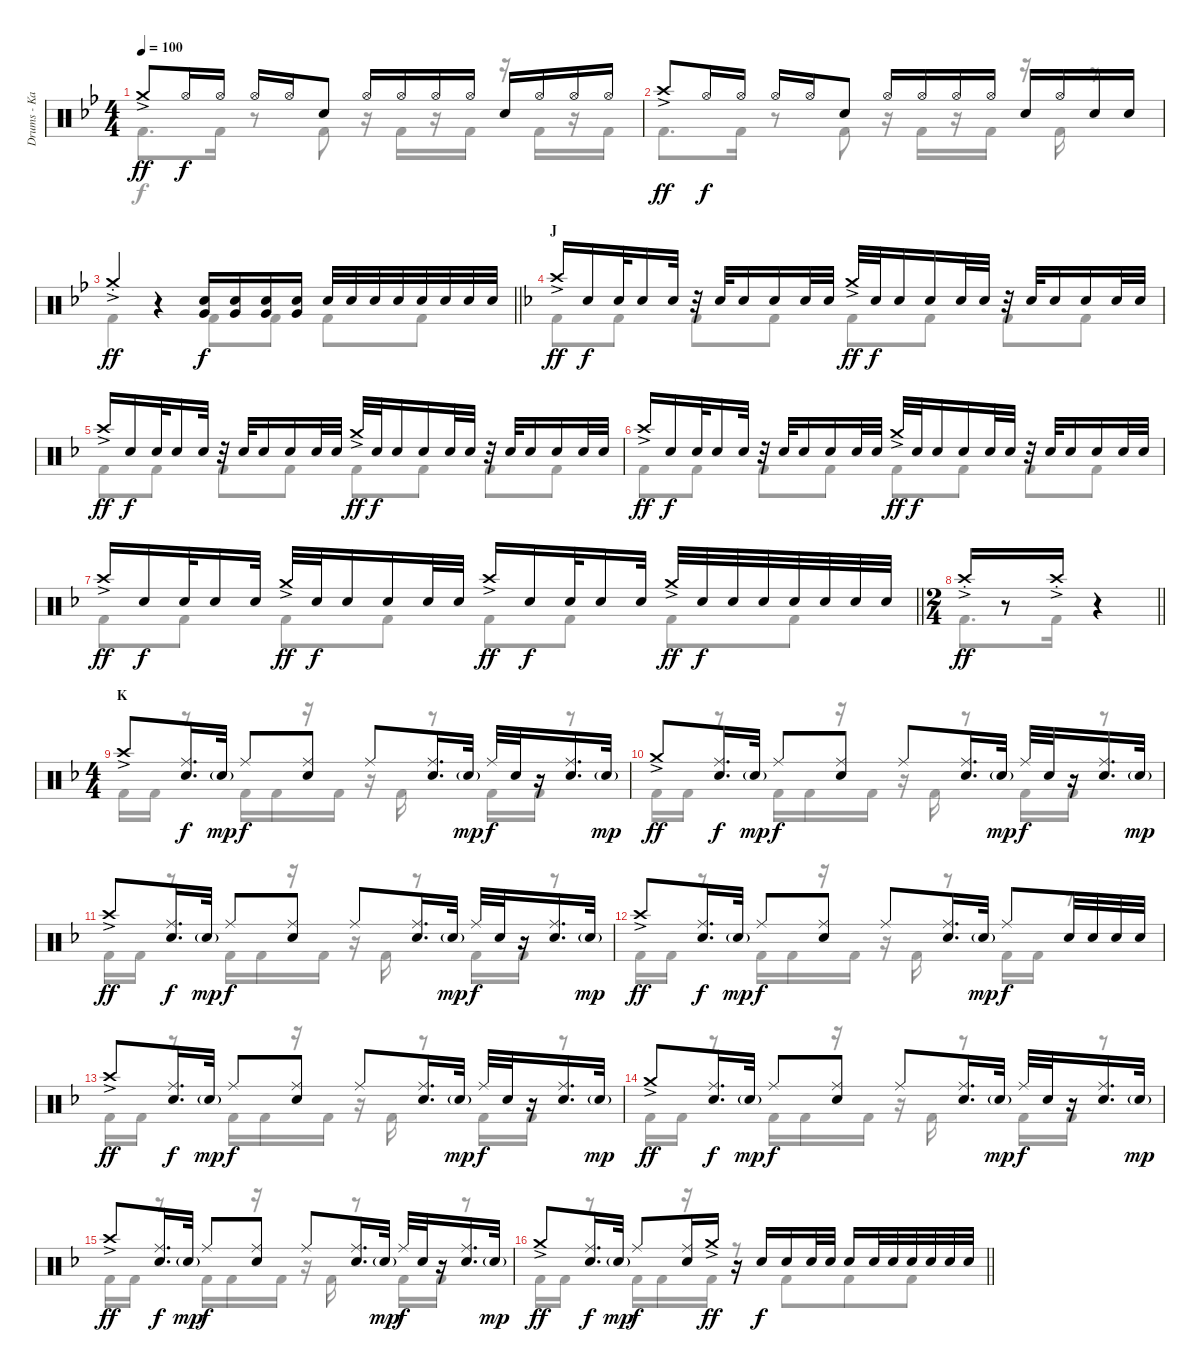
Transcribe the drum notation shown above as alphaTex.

\track ("Drums - Kai" "Drums - Ka") {instrument percussion}
\staff {score}
\articulation defaults
\voice
\ts (4 4)
\tempo 100
\clef neutral
\ks bb "Crash medium (hit)"{ac}.8{dy ff} "Hi-Hat (open)".16{dy f} "Hi-Hat (open)".16 "Hi-Hat (open)".16 "Hi-Hat (open)".16 "Electric Snare (hit)".8 "Hi-Hat (open)".16 "Hi-Hat (open)".16 "Hi-Hat (open)".16 "Hi-Hat (open)".16 "Electric Snare (hit)".16 "Hi-Hat (open)".16 "Hi-Hat (open)".16 "Hi-Hat (open)".16
|
"Crash high (hit)"{ac}.8{dy ff} "Hi-Hat (open)".16{dy f} "Hi-Hat (open)".16 "Hi-Hat (open)".16 "Hi-Hat (open)".16 "Electric Snare (hit)".8 "Hi-Hat (open)".16 "Hi-Hat (open)".16 "Hi-Hat (open)".16 "Hi-Hat (open)".16 "Electric Snare (hit)".16 "Hi-Hat (open)".16 "Electric Snare (hit)".16 "Electric Snare (hit)".16 |
\barLineRight lightlight "Crash medium (hit)"{ac st}.4{dy ff}
r.4 ("Very Low Tom (hit)" "Electric Snare (hit)").16{dy f} ("Very Low Tom (hit)" "Electric Snare (hit)").16 ("Very Low Tom (hit)" "Electric Snare (hit)").16 ("Very Low Tom (hit)" "Electric Snare (hit)").16 "Electric Snare (hit)".32 "Electric Snare (hit)".32 "Electric Snare (hit)".32 "Electric Snare (hit)".32 "Electric Snare (hit)".32 "Electric Snare (hit)".32 "Electric Snare (hit)".32 "Electric Snare (hit)".32 |
\section ("" "J")
\ks f "Crash high (hit)"{ac}.16{dy ff} "Electric Snare (hit)".16{dy f} "Electric Snare (hit)".32 "Electric Snare (hit)".16 "Electric Snare (hit)".32
r.32 "Electric Snare (hit)".32 "Electric Snare (hit)".16 "Electric Snare (hit)".16 "Electric Snare (hit)".32 "Electric Snare (hit)".32 "Crash medium (hit)"{ac}.32{dy ff} "Electric Snare (hit)".32{dy f} "Electric Snare (hit)".16 "Electric Snare (hit)".16 "Electric Snare (hit)".32 "Electric Snare (hit)".32 r.32 "Electric Snare (hit)".32 "Electric Snare (hit)".16 "Electric Snare (hit)".16 "Electric Snare (hit)".32 "Electric Snare (hit)".32 |
"Crash high (hit)"{ac}.16{dy ff} "Electric Snare (hit)".16{dy f} "Electric Snare (hit)".32 "Electric Snare (hit)".16 "Electric Snare (hit)".32 r.32 "Electric Snare (hit)".32 "Electric Snare (hit)".16 "Electric Snare (hit)".16 "Electric Snare (hit)".32 "Electric Snare (hit)".32 "Crash medium (hit)"{ac}.32{dy ff} "Electric Snare (hit)".32{dy f} "Electric Snare (hit)".16 "Electric Snare (hit)".16 "Electric Snare (hit)".32 "Electric Snare (hit)".32 r.32 "Electric Snare (hit)".32 "Electric Snare (hit)".16 "Electric Snare (hit)".16 "Electric Snare (hit)".32 "Electric Snare (hit)".32 |
"Crash high (hit)"{ac}.16{dy ff} "Electric Snare (hit)".16{dy f} "Electric Snare (hit)".32 "Electric Snare (hit)".16 "Electric Snare (hit)".32 r.32 "Electric Snare (hit)".32 "Electric Snare (hit)".16 "Electric Snare (hit)".16 "Electric Snare (hit)".32 "Electric Snare (hit)".32 "Crash medium (hit)"{ac}.32{dy ff} "Electric Snare (hit)".32{dy f} "Electric Snare (hit)".16 "Electric Snare (hit)".16 "Electric Snare (hit)".32 "Electric Snare (hit)".32 r.32 "Electric Snare (hit)".32 "Electric Snare (hit)".16 "Electric Snare (hit)".16 "Electric Snare (hit)".32 "Electric Snare (hit)".32 |
\barLineRight lightlight "Crash high (hit)"{ac}.16{dy ff} "Electric Snare (hit)".16{dy f} "Electric Snare (hit)".32 "Electric Snare (hit)".16 "Electric Snare (hit)".32 "Crash medium (hit)"{ac}.32{dy ff} "Electric Snare (hit)".32{dy f} "Electric Snare (hit)".16 "Electric Snare (hit)".16 "Electric Snare (hit)".32 "Electric Snare (hit)".32 "Crash high (hit)"{ac}.16{dy ff} "Electric Snare (hit)".16{dy f} "Electric Snare (hit)".32 "Electric Snare (hit)".16 "Electric Snare (hit)".32 "Crash medium (hit)"{ac}.32{dy ff} "Electric Snare (hit)".32{dy f} "Electric Snare (hit)".32 "Electric Snare (hit)".32 "Electric Snare (hit)".32 "Electric Snare (hit)".32 "Electric Snare (hit)".32 "Electric Snare (hit)".32
|
\ts (2 4)
\barLineRight lightlight "Crash high (hit)"{ac st}.16{dy ff}
r.8 "Crash high (hit)"{ac st}.16 r.4 |
\ts (4 4)
\section ("" "K")
"Crash high (hit)"{ac}.8 ("Ride (middle)" "Electric Snare (hit)").16{d dy f} "Electric Snare (hit)"{g}.32{dy mp} "Ride (middle)".8{dy f} ("Ride (middle)" "Electric Snare (hit)").8 "Ride (middle)".8 ("Ride (middle)" "Electric Snare (hit)").16{d} "Electric Snare (hit)"{g}.32{dy mp} "Ride (middle)".32{dy f} "Electric Snare (hit)".32 r.16 ("Ride (middle)" "Electric Snare (hit)").16{d} "Electric Snare (hit)"{g}.32{dy mp} |
"Crash medium (hit)"{ac}.8{dy ff} ("Ride (middle)" "Electric Snare (hit)").16{d dy f} "Electric Snare (hit)"{g}.32{dy mp} "Ride (middle)".8{dy f} ("Ride (middle)" "Electric Snare (hit)").8 "Ride (middle)".8 ("Ride (middle)" "Electric Snare (hit)").16{d} "Electric Snare (hit)"{g}.32{dy mp} "Ride (middle)".32{dy f} "Electric Snare (hit)".32 r.16 ("Ride (middle)" "Electric Snare (hit)").16{d} "Electric Snare (hit)"{g}.32{dy mp} |
"Crash high (hit)"{ac}.8{dy ff} ("Ride (middle)" "Electric Snare (hit)").16{d dy f} "Electric Snare (hit)"{g}.32{dy mp} "Ride (middle)".8{dy f} ("Ride (middle)" "Electric Snare (hit)").8 "Ride (middle)".8 ("Ride (middle)" "Electric Snare (hit)").16{d} "Electric Snare (hit)"{g}.32{dy mp} "Ride (middle)".32{dy f} "Electric Snare (hit)".32 r.16 ("Ride (middle)" "Electric Snare (hit)").16{d} "Electric Snare (hit)"{g}.32{dy mp} |
"Crash high (hit)"{ac}.8{dy ff} ("Ride (middle)" "Electric Snare (hit)").16{d dy f} "Electric Snare (hit)"{g}.32{dy mp} "Ride (middle)".8{dy f} ("Ride (middle)" "Electric Snare (hit)").8 "Ride (middle)".8 ("Ride (middle)" "Electric Snare (hit)").16{d} "Electric Snare (hit)"{g}.32{dy mp} "Ride (middle)".8{dy f} "Electric Snare (hit)".32 "Electric Snare (hit)".32 "Electric Snare (hit)".32 "Electric Snare (hit)".32 |
"Crash high (hit)"{ac}.8{dy ff} ("Ride (middle)" "Electric Snare (hit)").16{d dy f} "Electric Snare (hit)"{g}.32{dy mp} "Ride (middle)".8{dy f} ("Ride (middle)" "Electric Snare (hit)").8 "Ride (middle)".8 ("Ride (middle)" "Electric Snare (hit)").16{d} "Electric Snare (hit)"{g}.32{dy mp} "Ride (middle)".32{dy f} "Electric Snare (hit)".32 r.16 ("Ride (middle)" "Electric Snare (hit)").16{d} "Electric Snare (hit)"{g}.32{dy mp} |
"Crash medium (hit)"{ac}.8{dy ff} ("Ride (middle)" "Electric Snare (hit)").16{d dy f} "Electric Snare (hit)"{g}.32{dy mp} "Ride (middle)".8{dy f} ("Ride (middle)" "Electric Snare (hit)").8 "Ride (middle)".8 ("Ride (middle)" "Electric Snare (hit)").16{d} "Electric Snare (hit)"{g}.32{dy mp} "Ride (middle)".32{dy f} "Electric Snare (hit)".32 r.16 ("Ride (middle)" "Electric Snare (hit)").16{d} "Electric Snare (hit)"{g}.32{dy mp} |
"Crash high (hit)"{ac}.8{dy ff} ("Ride (middle)" "Electric Snare (hit)").16{d dy f} "Electric Snare (hit)"{g}.32{dy mp} "Ride (middle)".8{dy f} ("Ride (middle)" "Electric Snare (hit)").8 "Ride (middle)".8 ("Ride (middle)" "Electric Snare (hit)").16{d} "Electric Snare (hit)"{g}.32{dy mp} "Ride (middle)".32{dy f} "Electric Snare (hit)".32 r.16 ("Ride (middle)" "Electric Snare (hit)").16{d} "Electric Snare (hit)"{g}.32{dy mp} |
\barLineRight lightlight "Crash medium (hit)"{ac}.8{dy ff}
("Ride (middle)" "Electric Snare (hit)").16{d dy f} "Electric Snare (hit)"{g}.32{dy mp} "Ride (middle)".8{dy f} ("Ride (middle)" "Electric Snare (hit)").16 "Crash medium (hit)"{ac}.16{dy ff} r.16 "Electric Snare (hit)".16{dy f} "Electric Snare (hit)".16 "Electric Snare (hit)".32 "Electric Snare (hit)".32 "Electric Snare (hit)".16 "Electric Snare (hit)".32 "Electric Snare (hit)".32 "Electric Snare (hit)".32 "Electric Snare (hit)".32 "Electric Snare (hit)".32 "Electric Snare (hit)".32
\voice
\clef neutral
\ottava regular
\simile none
\ks bb "Kick (hit) 2".8{d dy f} "Kick (hit) 2".16
r.8 "Kick (hit) 2".8 r.16 "Kick (hit) 2".16 r.16 "Kick (hit) 2".16 r.16 "Kick (hit) 2".16 r.16 "Kick (hit) 2".16 |
"Kick (hit) 2".8{d} "Kick (hit) 2".16 r.8 "Kick (hit) 2".8 r.16 "Kick (hit) 2".16 r.16 "Kick (hit) 2".16 r.16 "Kick (hit) 2".16 r.8 |
\barLineRight lightlight "Kick (hit) 2".4
r.4 "Kick (hit) 2".8 "Kick (hit) 2".8 "Kick (hit) 2".8 "Kick (hit) 2".8 |
\ks f "Kick (hit) 2".8 "Kick (hit) 2".8 "Kick (hit) 2".8 "Kick (hit) 2".8 "Kick (hit) 2".8 "Kick (hit) 2".8 "Kick (hit) 2".8 "Kick (hit) 2".8
|
"Kick (hit) 2".8 "Kick (hit) 2".8 "Kick (hit) 2".8 "Kick (hit) 2".8 "Kick (hit) 2".8 "Kick (hit) 2".8 "Kick (hit) 2".8 "Kick (hit) 2".8 |
"Kick (hit) 2".8 "Kick (hit) 2".8 "Kick (hit) 2".8 "Kick (hit) 2".8 "Kick (hit) 2".8 "Kick (hit) 2".8 "Kick (hit) 2".8 "Kick (hit) 2".8 |
\barLineRight lightlight "Kick (hit) 2".8 "Kick (hit) 2".8 "Kick (hit) 2".8 "Kick (hit) 2".8 "Kick (hit) 2".8 "Kick (hit) 2".8 "Kick (hit) 2".8 "Kick (hit) 2".8
|
\barLineRight lightlight "Kick (hit) 2".8{d} "Kick (hit) 2".16
r.4 |
"Kick (hit) 2".16 "Kick (hit) 2".16 r.8 "Kick (hit) 2".16 "Kick (hit) 2".16 r.16 "Kick (hit) 2".16 r.16 "Kick (hit) 2".16 r.8 "Kick (hit) 2".16 "Kick (hit) 2".16 r.8 |
"Kick (hit) 2".16 "Kick (hit) 2".16 r.8 "Kick (hit) 2".16 "Kick (hit) 2".16 r.16 "Kick (hit) 2".16 r.16 "Kick (hit) 2".16 r.8 "Kick (hit) 2".16 "Kick (hit) 2".16 r.8 |
"Kick (hit) 2".16 "Kick (hit) 2".16 r.8 "Kick (hit) 2".16 "Kick (hit) 2".16 r.16 "Kick (hit) 2".16 r.16 "Kick (hit) 2".16 r.8 "Kick (hit) 2".16 "Kick (hit) 2".16 r.8 |
"Kick (hit) 2".16 "Kick (hit) 2".16 r.8 "Kick (hit) 2".16 "Kick (hit) 2".16 r.16 "Kick (hit) 2".16 r.16 "Kick (hit) 2".16 r.8 "Kick (hit) 2".16 "Kick (hit) 2".16 r.8 |
"Kick (hit) 2".16 "Kick (hit) 2".16 r.8 "Kick (hit) 2".16 "Kick (hit) 2".16 r.16 "Kick (hit) 2".16 r.16 "Kick (hit) 2".16 r.8 "Kick (hit) 2".16 "Kick (hit) 2".16 r.8 |
"Kick (hit) 2".16 "Kick (hit) 2".16 r.8 "Kick (hit) 2".16 "Kick (hit) 2".16 r.16 "Kick (hit) 2".16 r.16 "Kick (hit) 2".16 r.8 "Kick (hit) 2".16 "Kick (hit) 2".16 r.8 |
"Kick (hit) 2".16 "Kick (hit) 2".16 r.8 "Kick (hit) 2".16 "Kick (hit) 2".16 r.16 "Kick (hit) 2".16 r.16 "Kick (hit) 2".16 r.8 "Kick (hit) 2".16 "Kick (hit) 2".16 r.8 |
\barLineRight lightlight "Kick (hit) 2".16 "Kick (hit) 2".16
r.8 "Kick (hit) 2".16 "Kick (hit) 2".16 r.16 "Kick (hit) 2".16 r.8 "Kick (hit) 2".8{beam merge} "Kick (hit) 2".8 "Kick (hit) 2".8
